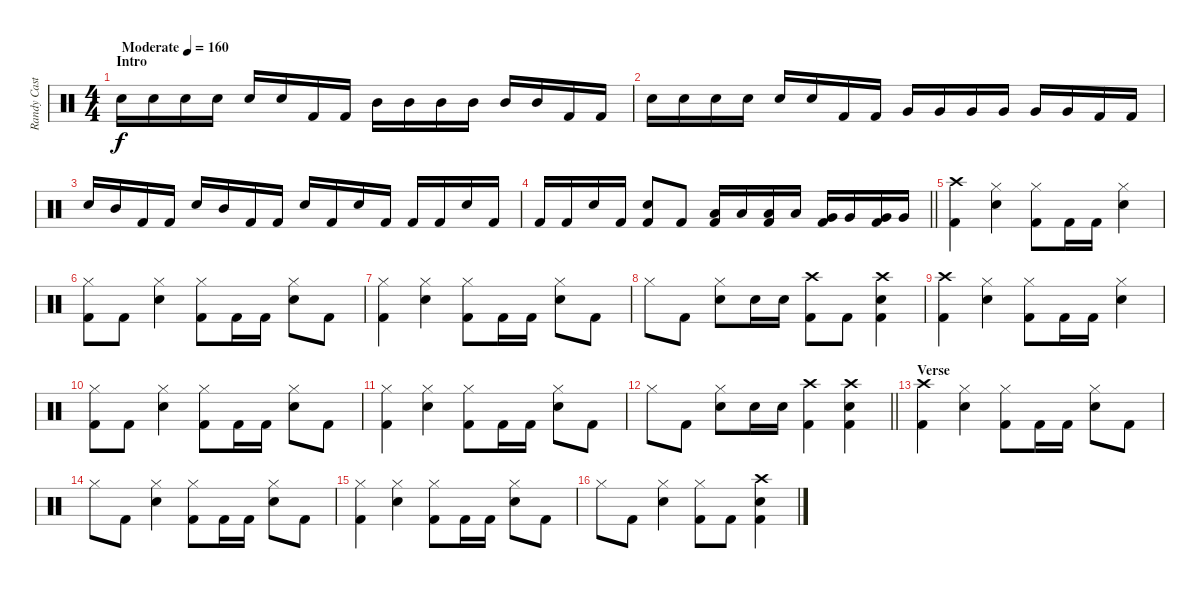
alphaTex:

\track ("Randy Castillo" "Randy Cast") {instrument percussion}
\staff {score}
\articulation defaults
\ts (4 4)
\section ("" "Intro")
\tempo (160 "Moderate")
\clef neutral
\ks aminor "Snare (hit) 2".16{dy f} "Snare (hit) 2".16 "Snare (hit) 2".16 "Snare (hit) 2".16 "Snare (hit) 2".16 "Snare (hit) 2".16 "Kick (hit) 2".16 "Kick (hit) 2".16 "Mid Tom (hit)".16 "Mid Tom (hit)".16 "Mid Tom (hit)".16 "Mid Tom (hit)".16 "Mid Tom (hit)".16 "Mid Tom (hit)".16 "Kick (hit) 2".16 "Kick (hit) 2".16
|
"Snare (hit) 2".16 "Snare (hit) 2".16 "Snare (hit) 2".16 "Snare (hit) 2".16 "Snare (hit) 2".16 "Snare (hit) 2".16 "Kick (hit) 2".16 "Kick (hit) 2".16 "Very Low Tom (hit)".16 "Very Low Tom (hit)".16 "Very Low Tom (hit)".16 "Very Low Tom (hit)".16 "Very Low Tom (hit)".16 "Very Low Tom (hit)".16 "Kick (hit) 2".16 "Kick (hit) 2".16 |
"Snare (hit) 2".16 "Mid Tom (hit)".16 "Kick (hit) 2".16 "Kick (hit) 2".16 "Snare (hit) 2".16 "Mid Tom (hit)".16 "Kick (hit) 2".16 "Kick (hit) 2".16 "Snare (hit) 2".16 "Kick (hit) 2".16 "Snare (hit) 2".16 "Kick (hit) 2".16 "Kick (hit) 2".16 "Kick (hit) 2".16 "Snare (hit) 2".16 "Kick (hit) 2".16 |
\barLineRight lightlight "Kick (hit) 2".16 "Kick (hit) 2".16 "Snare (hit) 2".16 "Kick (hit) 2".16
("Snare (hit) 2" "Kick (hit) 2").8 "Kick (hit) 2".8 ("Kick (hit) 2" "Low Tom (hit)").16 "Low Tom (hit)".16 ("Kick (hit) 2" "Low Tom (hit)").16 "Low Tom (hit)".16 ("Kick (hit) 2" "Very Low Tom (hit)").16 "Very Low Tom (hit)".16 ("Kick (hit) 2" "Very Low Tom (hit)").16 "Very Low Tom (hit)".16 |
("Kick (hit) 2" "Crash high (hit)").4 ("Hi-Hat (closed)" "Snare (hit) 2").4 ("Hi-Hat (closed)" "Kick (hit) 2").8 "Kick (hit) 2".16 "Kick (hit) 2".16 ("Hi-Hat (closed)" "Snare (hit) 2").4 |
("Hi-Hat (closed)" "Kick (hit) 2").8 "Kick (hit) 2".8 ("Hi-Hat (closed)" "Snare (hit) 2").4 ("Hi-Hat (closed)" "Kick (hit) 2").8 "Kick (hit) 2".16 "Kick (hit) 2".16 ("Hi-Hat (closed)" "Snare (hit) 2").8 "Kick (hit) 2".8 |
("Hi-Hat (closed)" "Kick (hit) 2").4 ("Hi-Hat (closed)" "Snare (hit) 2").4 ("Hi-Hat (closed)" "Kick (hit) 2").8 "Kick (hit) 2".16 "Kick (hit) 2".16 ("Hi-Hat (closed)" "Snare (hit) 2").8 "Kick (hit) 2".8 |
"Hi-Hat (closed)".8 "Kick (hit) 2".8 ("Hi-Hat (closed)" "Snare (hit) 2").8 "Snare (hit) 2".16 "Snare (hit) 2".16 ("Kick (hit) 2" "Crash high (hit)").8 "Kick (hit) 2".8 ("Snare (hit) 2" "Kick (hit) 2" "Crash high (hit)").4 |
("Kick (hit) 2" "Crash high (hit)").4 ("Hi-Hat (closed)" "Snare (hit) 2").4 ("Hi-Hat (closed)" "Kick (hit) 2").8 "Kick (hit) 2".16 "Kick (hit) 2".16 ("Hi-Hat (closed)" "Snare (hit) 2").4 |
("Hi-Hat (closed)" "Kick (hit) 2").8 "Kick (hit) 2".8 ("Hi-Hat (closed)" "Snare (hit) 2").4 ("Hi-Hat (closed)" "Kick (hit) 2").8 "Kick (hit) 2".16 "Kick (hit) 2".16 ("Hi-Hat (closed)" "Snare (hit) 2").8 "Kick (hit) 2".8 |
("Hi-Hat (closed)" "Kick (hit) 2").4 ("Hi-Hat (closed)" "Snare (hit) 2").4 ("Hi-Hat (closed)" "Kick (hit) 2").8 "Kick (hit) 2".16 "Kick (hit) 2".16 ("Hi-Hat (closed)" "Snare (hit) 2").8 "Kick (hit) 2".8 |
\barLineRight lightlight "Hi-Hat (closed)".8 "Kick (hit) 2".8
("Hi-Hat (closed)" "Snare (hit) 2").8 "Snare (hit) 2".16 "Snare (hit) 2".16 ("Kick (hit) 2" "Crash high (hit)").4 ("Snare (hit) 2" "Kick (hit) 2" "Crash high (hit)").4 |
\section ("" "Verse")
("Kick (hit) 2" "Crash high (hit)").4 ("Hi-Hat (closed)" "Snare (hit) 2").4 ("Hi-Hat (closed)" "Kick (hit) 2").8 "Kick (hit) 2".16 "Kick (hit) 2".16 ("Hi-Hat (closed)" "Snare (hit) 2").8 "Kick (hit) 2".8 |
"Hi-Hat (closed)".8 "Kick (hit) 2".8 ("Hi-Hat (closed)" "Snare (hit) 2").4 ("Hi-Hat (closed)" "Kick (hit) 2").8 "Kick (hit) 2".16 "Kick (hit) 2".16 ("Hi-Hat (closed)" "Snare (hit) 2").8 "Kick (hit) 2".8 |
("Hi-Hat (closed)" "Kick (hit) 2").4 ("Hi-Hat (closed)" "Snare (hit) 2").4 ("Hi-Hat (closed)" "Kick (hit) 2").8 "Kick (hit) 2".16 "Kick (hit) 2".16 ("Hi-Hat (closed)" "Snare (hit) 2").8 "Kick (hit) 2".8 |
"Hi-Hat (closed)".8 "Kick (hit) 2".8 ("Hi-Hat (closed)" "Snare (hit) 2").4 ("Hi-Hat (closed)" "Kick (hit) 2").8 "Kick (hit) 2".8 ("Snare (hit) 2" "Kick (hit) 2" "Crash high (hit)").4
